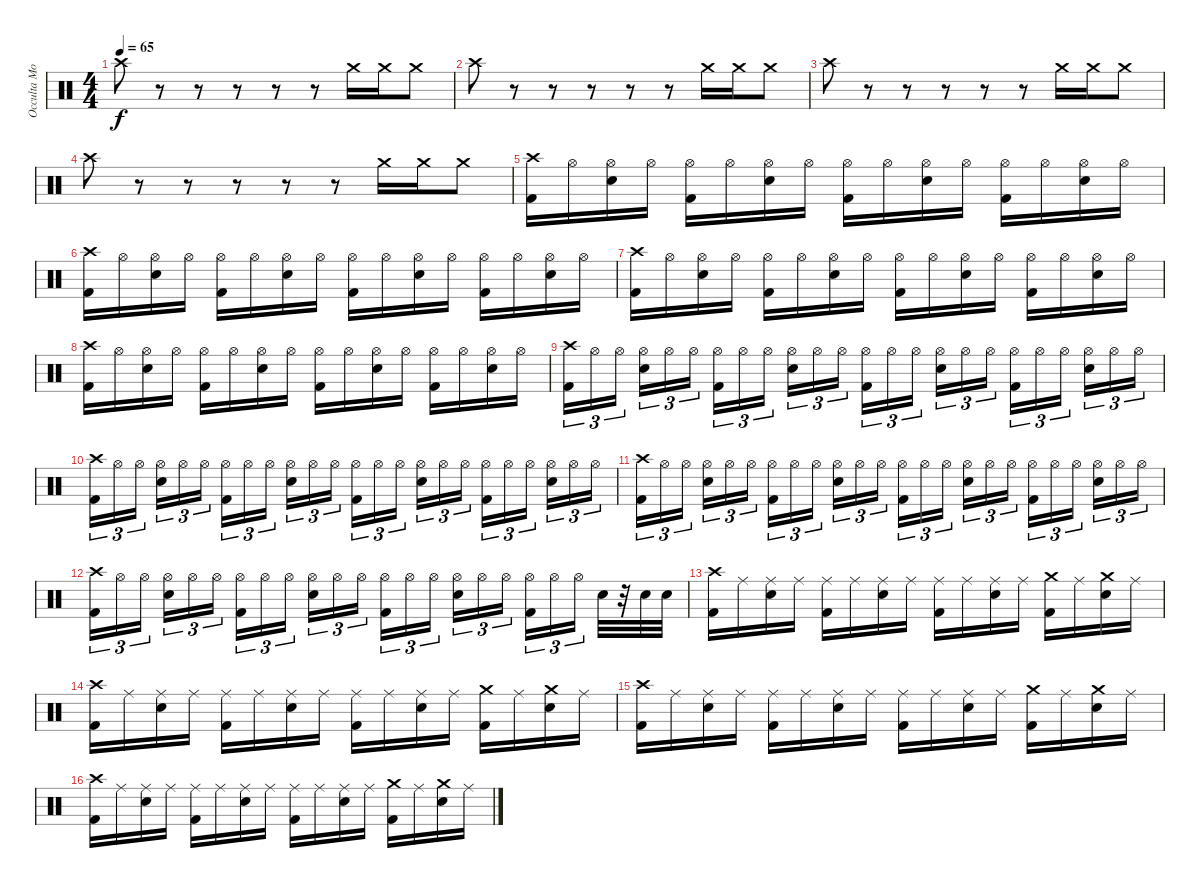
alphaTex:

\track ("Occulta Mors" "Occulta Mo") {instrument percussion}
\staff {score}
\articulation defaults
\ts (4 4)
\tempo 65
\clef neutral
\ks c "Crash high (hit)".8{dy f}
r.8 r.8 r.8 r.8 r.8 "Crash medium (hit)".16 "Crash medium (hit)".16 "Crash medium (hit)".8 |
"Crash high (hit)".8 r.8 r.8 r.8 r.8 r.8 "Crash medium (hit)".16 "Crash medium (hit)".16 "Crash medium (hit)".8 |
"Crash high (hit)".8 r.8 r.8 r.8 r.8 r.8 "Crash medium (hit)".16 "Crash medium (hit)".16 "Crash medium (hit)".8 |
"Crash high (hit)".8 r.8 r.8 r.8 r.8 r.8 "Crash medium (hit)".16 "Crash medium (hit)".16 "Crash medium (hit)".8 |
("Crash high (hit)" "Kick (hit) 2").16 "Hi-Hat (open)".16 ("Hi-Hat (open)" "Snare (hit) 2").16 "Hi-Hat (open)".16 ("Hi-Hat (open)" "Kick (hit) 2").16 "Hi-Hat (open)".16 ("Hi-Hat (open)" "Snare (hit) 2").16 "Hi-Hat (open)".16 ("Hi-Hat (open)" "Kick (hit) 2").16 "Hi-Hat (open)".16 ("Hi-Hat (open)" "Snare (hit) 2").16 "Hi-Hat (open)".16 ("Hi-Hat (open)" "Kick (hit) 2").16 "Hi-Hat (open)".16 ("Hi-Hat (open)" "Snare (hit) 2").16 "Hi-Hat (open)".16 |
("Crash high (hit)" "Kick (hit) 2").16 "Hi-Hat (open)".16 ("Hi-Hat (open)" "Snare (hit) 2").16 "Hi-Hat (open)".16 ("Hi-Hat (open)" "Kick (hit) 2").16 "Hi-Hat (open)".16 ("Hi-Hat (open)" "Snare (hit) 2").16 "Hi-Hat (open)".16 ("Hi-Hat (open)" "Kick (hit) 2").16 "Hi-Hat (open)".16 ("Hi-Hat (open)" "Snare (hit) 2").16 "Hi-Hat (open)".16 ("Hi-Hat (open)" "Kick (hit) 2").16 "Hi-Hat (open)".16 ("Hi-Hat (open)" "Snare (hit) 2").16 "Hi-Hat (open)".16 |
("Crash high (hit)" "Kick (hit) 2").16 "Hi-Hat (open)".16 ("Hi-Hat (open)" "Snare (hit) 2").16 "Hi-Hat (open)".16 ("Hi-Hat (open)" "Kick (hit) 2").16 "Hi-Hat (open)".16 ("Hi-Hat (open)" "Snare (hit) 2").16 "Hi-Hat (open)".16 ("Hi-Hat (open)" "Kick (hit) 2").16 "Hi-Hat (open)".16 ("Hi-Hat (open)" "Snare (hit) 2").16 "Hi-Hat (open)".16 ("Hi-Hat (open)" "Kick (hit) 2").16 "Hi-Hat (open)".16 ("Hi-Hat (open)" "Snare (hit) 2").16 "Hi-Hat (open)".16 |
("Crash high (hit)" "Kick (hit) 2").16 "Hi-Hat (open)".16 ("Hi-Hat (open)" "Snare (hit) 2").16 "Hi-Hat (open)".16 ("Hi-Hat (open)" "Kick (hit) 2").16 "Hi-Hat (open)".16 ("Hi-Hat (open)" "Snare (hit) 2").16 "Hi-Hat (open)".16 ("Hi-Hat (open)" "Kick (hit) 2").16 "Hi-Hat (open)".16 ("Hi-Hat (open)" "Snare (hit) 2").16 "Hi-Hat (open)".16 ("Hi-Hat (open)" "Kick (hit) 2").16 "Hi-Hat (open)".16 ("Hi-Hat (open)" "Snare (hit) 2").16 "Hi-Hat (open)".16 |
("Crash high (hit)" "Kick (hit) 2").16{tu (3 2)} "Hi-Hat (open)".16{tu (3 2)} "Hi-Hat (open)".16{tu (3 2)} ("Hi-Hat (open)" "Snare (hit) 2").16{tu (3 2)} "Hi-Hat (open)".16{tu (3 2)} "Hi-Hat (open)".16{tu (3 2)} ("Hi-Hat (open)" "Kick (hit) 2").16{tu (3 2)} "Hi-Hat (open)".16{tu (3 2)} "Hi-Hat (open)".16{tu (3 2)} ("Hi-Hat (open)" "Snare (hit) 2").16{tu (3 2)} "Hi-Hat (open)".16{tu (3 2)} "Hi-Hat (open)".16{tu (3 2)} ("Hi-Hat (open)" "Kick (hit) 2").16{tu (3 2)} "Hi-Hat (open)".16{tu (3 2)} "Hi-Hat (open)".16{tu (3 2)} ("Hi-Hat (open)" "Snare (hit) 2").16{tu (3 2)} "Hi-Hat (open)".16{tu (3 2)} "Hi-Hat (open)".16{tu (3 2)} ("Hi-Hat (open)" "Kick (hit) 2").16{tu (3 2)} "Hi-Hat (open)".16{tu (3 2)} "Hi-Hat (open)".16{tu (3 2)} ("Hi-Hat (open)" "Snare (hit) 2").16{tu (3 2)} "Hi-Hat (open)".16{tu (3 2)} "Hi-Hat (open)".16{tu (3 2)} |
("Crash high (hit)" "Kick (hit) 2").16{tu (3 2)} "Hi-Hat (open)".16{tu (3 2)} "Hi-Hat (open)".16{tu (3 2)} ("Hi-Hat (open)" "Snare (hit) 2").16{tu (3 2)} "Hi-Hat (open)".16{tu (3 2)} "Hi-Hat (open)".16{tu (3 2)} ("Hi-Hat (open)" "Kick (hit) 2").16{tu (3 2)} "Hi-Hat (open)".16{tu (3 2)} "Hi-Hat (open)".16{tu (3 2)} ("Hi-Hat (open)" "Snare (hit) 2").16{tu (3 2)} "Hi-Hat (open)".16{tu (3 2)} "Hi-Hat (open)".16{tu (3 2)} ("Hi-Hat (open)" "Kick (hit) 2").16{tu (3 2)} "Hi-Hat (open)".16{tu (3 2)} "Hi-Hat (open)".16{tu (3 2)} ("Hi-Hat (open)" "Snare (hit) 2").16{tu (3 2)} "Hi-Hat (open)".16{tu (3 2)} "Hi-Hat (open)".16{tu (3 2)} ("Hi-Hat (open)" "Kick (hit) 2").16{tu (3 2)} "Hi-Hat (open)".16{tu (3 2)} "Hi-Hat (open)".16{tu (3 2)} ("Hi-Hat (open)" "Snare (hit) 2").16{tu (3 2)} "Hi-Hat (open)".16{tu (3 2)} "Hi-Hat (open)".16{tu (3 2)} |
("Crash high (hit)" "Kick (hit) 2").16{tu (3 2)} "Hi-Hat (open)".16{tu (3 2)} "Hi-Hat (open)".16{tu (3 2)} ("Hi-Hat (open)" "Snare (hit) 2").16{tu (3 2)} "Hi-Hat (open)".16{tu (3 2)} "Hi-Hat (open)".16{tu (3 2)} ("Hi-Hat (open)" "Kick (hit) 2").16{tu (3 2)} "Hi-Hat (open)".16{tu (3 2)} "Hi-Hat (open)".16{tu (3 2)} ("Hi-Hat (open)" "Snare (hit) 2").16{tu (3 2)} "Hi-Hat (open)".16{tu (3 2)} "Hi-Hat (open)".16{tu (3 2)} ("Hi-Hat (open)" "Kick (hit) 2").16{tu (3 2)} "Hi-Hat (open)".16{tu (3 2)} "Hi-Hat (open)".16{tu (3 2)} ("Hi-Hat (open)" "Snare (hit) 2").16{tu (3 2)} "Hi-Hat (open)".16{tu (3 2)} "Hi-Hat (open)".16{tu (3 2)} ("Hi-Hat (open)" "Kick (hit) 2").16{tu (3 2)} "Hi-Hat (open)".16{tu (3 2)} "Hi-Hat (open)".16{tu (3 2)} ("Hi-Hat (open)" "Snare (hit) 2").16{tu (3 2)} "Hi-Hat (open)".16{tu (3 2)} "Hi-Hat (open)".16{tu (3 2)} |
("Crash high (hit)" "Kick (hit) 2").16{tu (3 2)} "Hi-Hat (open)".16{tu (3 2)} "Hi-Hat (open)".16{tu (3 2)} ("Hi-Hat (open)" "Snare (hit) 2").16{tu (3 2)} "Hi-Hat (open)".16{tu (3 2)} "Hi-Hat (open)".16{tu (3 2)} ("Hi-Hat (open)" "Kick (hit) 2").16{tu (3 2)} "Hi-Hat (open)".16{tu (3 2)} "Hi-Hat (open)".16{tu (3 2)} ("Hi-Hat (open)" "Snare (hit) 2").16{tu (3 2)} "Hi-Hat (open)".16{tu (3 2)} "Hi-Hat (open)".16{tu (3 2)} ("Hi-Hat (open)" "Kick (hit) 2").16{tu (3 2)} "Hi-Hat (open)".16{tu (3 2)} "Hi-Hat (open)".16{tu (3 2)} ("Hi-Hat (open)" "Snare (hit) 2").16{tu (3 2)} "Hi-Hat (open)".16{tu (3 2)} "Hi-Hat (open)".16{tu (3 2)} ("Hi-Hat (open)" "Kick (hit) 2").16{tu (3 2)} "Hi-Hat (open)".16{tu (3 2)} "Hi-Hat (open)".16{tu (3 2)} "Snare (hit) 2".32 r.32 "Snare (hit) 2".32 "Snare (hit) 2".32 |
("Crash high (hit)" "Kick (hit) 2").16 "Ride (middle)".16 ("Ride (middle)" "Snare (hit) 2").16 "Ride (middle)".16 ("Ride (middle)" "Kick (hit) 2").16 "Ride (middle)".16 ("Ride (middle)" "Snare (hit) 2").16 "Ride (middle)".16 ("Ride (middle)" "Kick (hit) 2").16 "Ride (middle)".16 ("Ride (middle)" "Snare (hit) 2").16 "Ride (middle)".16 ("Crash medium (hit)" "Kick (hit) 2").16 "Ride (middle)".16 ("Crash medium (hit)" "Snare (hit) 2").16 "Ride (middle)".16 |
("Crash high (hit)" "Kick (hit) 2").16 "Ride (middle)".16 ("Ride (middle)" "Snare (hit) 2").16 "Ride (middle)".16 ("Ride (middle)" "Kick (hit) 2").16 "Ride (middle)".16 ("Ride (middle)" "Snare (hit) 2").16 "Ride (middle)".16 ("Ride (middle)" "Kick (hit) 2").16 "Ride (middle)".16 ("Ride (middle)" "Snare (hit) 2").16 "Ride (middle)".16 ("Crash medium (hit)" "Kick (hit) 2").16 "Ride (middle)".16 ("Crash medium (hit)" "Snare (hit) 2").16 "Ride (middle)".16 |
("Crash high (hit)" "Kick (hit) 2").16 "Ride (middle)".16 ("Ride (middle)" "Snare (hit) 2").16 "Ride (middle)".16 ("Ride (middle)" "Kick (hit) 2").16 "Ride (middle)".16 ("Ride (middle)" "Snare (hit) 2").16 "Ride (middle)".16 ("Ride (middle)" "Kick (hit) 2").16 "Ride (middle)".16 ("Ride (middle)" "Snare (hit) 2").16 "Ride (middle)".16 ("Crash medium (hit)" "Kick (hit) 2").16 "Ride (middle)".16 ("Crash medium (hit)" "Snare (hit) 2").16 "Ride (middle)".16 |
("Crash high (hit)" "Kick (hit) 2").16 "Ride (middle)".16 ("Ride (middle)" "Snare (hit) 2").16 "Ride (middle)".16 ("Ride (middle)" "Kick (hit) 2").16 "Ride (middle)".16 ("Ride (middle)" "Snare (hit) 2").16 "Ride (middle)".16 ("Ride (middle)" "Kick (hit) 2").16 "Ride (middle)".16 ("Ride (middle)" "Snare (hit) 2").16 "Ride (middle)".16 ("Crash medium (hit)" "Kick (hit) 2").16 "Ride (middle)".16 ("Crash medium (hit)" "Snare (hit) 2").16 "Ride (middle)".16
